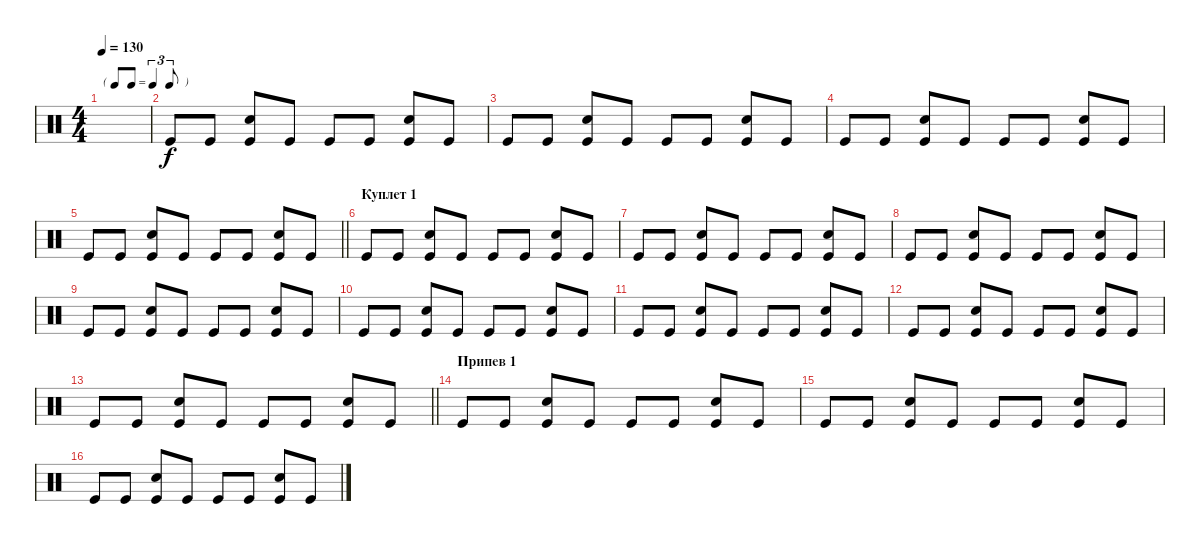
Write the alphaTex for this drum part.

\track "" {instrument percussion}
\staff {score}
\articulation defaults
\ts (4 4)
\tf triplet8th
\tempo 130
\clef neutral
\ks c
|
"Kick (hit)".8 "Kick (hit)".8 ("Snare (hit) 2" "Kick (hit)").8 "Kick (hit)".8 "Kick (hit)".8 "Kick (hit)".8 ("Snare (hit) 2" "Kick (hit)").8 "Kick (hit)".8 |
"Kick (hit)".8 "Kick (hit)".8 ("Snare (hit) 2" "Kick (hit)").8 "Kick (hit)".8 "Kick (hit)".8 "Kick (hit)".8 ("Snare (hit) 2" "Kick (hit)").8 "Kick (hit)".8 |
"Kick (hit)".8 "Kick (hit)".8 ("Snare (hit) 2" "Kick (hit)").8 "Kick (hit)".8 "Kick (hit)".8 "Kick (hit)".8 ("Snare (hit) 2" "Kick (hit)").8 "Kick (hit)".8 |
\barLineRight lightlight "Kick (hit)".8 "Kick (hit)".8
("Snare (hit) 2" "Kick (hit)").8 "Kick (hit)".8 "Kick (hit)".8 "Kick (hit)".8 ("Snare (hit) 2" "Kick (hit)").8 "Kick (hit)".8 |
\section ("" "Куплет 1")
"Kick (hit)".8 "Kick (hit)".8 ("Snare (hit) 2" "Kick (hit)").8 "Kick (hit)".8 "Kick (hit)".8 "Kick (hit)".8 ("Snare (hit) 2" "Kick (hit)").8 "Kick (hit)".8 |
"Kick (hit)".8 "Kick (hit)".8 ("Snare (hit) 2" "Kick (hit)").8 "Kick (hit)".8 "Kick (hit)".8 "Kick (hit)".8 ("Snare (hit) 2" "Kick (hit)").8 "Kick (hit)".8 |
"Kick (hit)".8 "Kick (hit)".8 ("Snare (hit) 2" "Kick (hit)").8 "Kick (hit)".8 "Kick (hit)".8 "Kick (hit)".8 ("Snare (hit) 2" "Kick (hit)").8 "Kick (hit)".8 |
"Kick (hit)".8 "Kick (hit)".8 ("Snare (hit) 2" "Kick (hit)").8 "Kick (hit)".8 "Kick (hit)".8 "Kick (hit)".8 ("Snare (hit) 2" "Kick (hit)").8 "Kick (hit)".8 |
"Kick (hit)".8 "Kick (hit)".8 ("Snare (hit) 2" "Kick (hit)").8 "Kick (hit)".8 "Kick (hit)".8 "Kick (hit)".8 ("Snare (hit) 2" "Kick (hit)").8 "Kick (hit)".8 |
"Kick (hit)".8 "Kick (hit)".8 ("Snare (hit) 2" "Kick (hit)").8 "Kick (hit)".8 "Kick (hit)".8 "Kick (hit)".8 ("Snare (hit) 2" "Kick (hit)").8 "Kick (hit)".8 |
"Kick (hit)".8 "Kick (hit)".8 ("Snare (hit) 2" "Kick (hit)").8 "Kick (hit)".8 "Kick (hit)".8 "Kick (hit)".8 ("Snare (hit) 2" "Kick (hit)").8 "Kick (hit)".8 |
\barLineRight lightlight "Kick (hit)".8 "Kick (hit)".8
("Snare (hit) 2" "Kick (hit)").8 "Kick (hit)".8 "Kick (hit)".8 "Kick (hit)".8 ("Snare (hit) 2" "Kick (hit)").8 "Kick (hit)".8 |
\section ("" "Припев 1")
"Kick (hit)".8 "Kick (hit)".8 ("Snare (hit) 2" "Kick (hit)").8 "Kick (hit)".8 "Kick (hit)".8 "Kick (hit)".8 ("Snare (hit) 2" "Kick (hit)").8 "Kick (hit)".8 |
"Kick (hit)".8 "Kick (hit)".8 ("Snare (hit) 2" "Kick (hit)").8 "Kick (hit)".8 "Kick (hit)".8 "Kick (hit)".8 ("Snare (hit) 2" "Kick (hit)").8 "Kick (hit)".8 |
"Kick (hit)".8 "Kick (hit)".8 ("Snare (hit) 2" "Kick (hit)").8 "Kick (hit)".8 "Kick (hit)".8 "Kick (hit)".8 ("Snare (hit) 2" "Kick (hit)").8 "Kick (hit)".8
